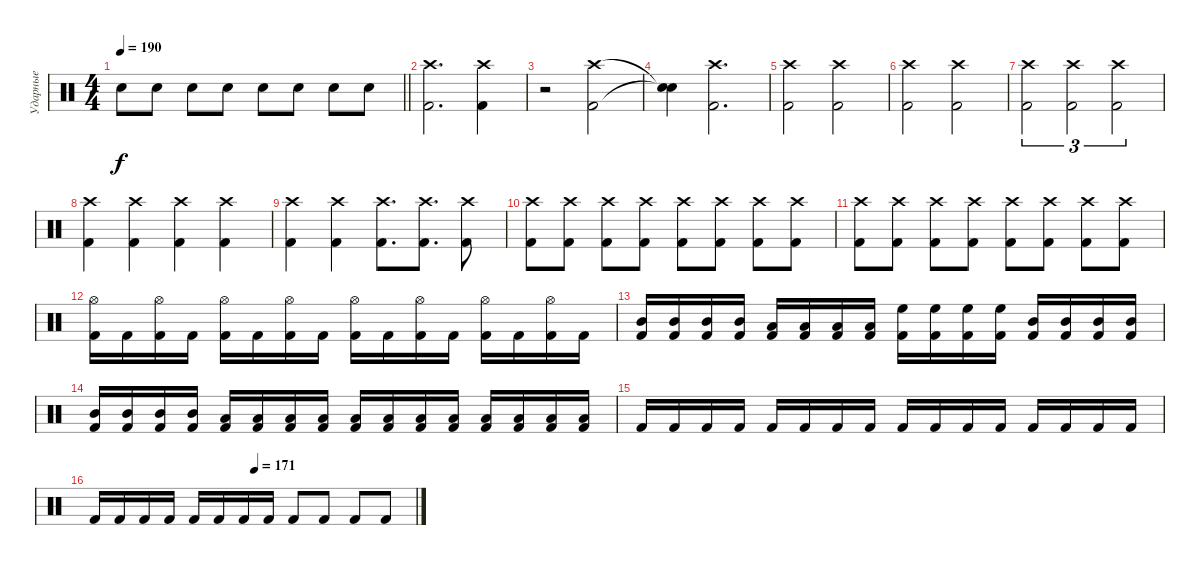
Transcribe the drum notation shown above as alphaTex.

\track ("Ударные" "Ударные") {instrument percussion}
\staff
\articulation defaults
\ts (4 4)
\tempo 190
\clef neutral
\barLineRight lightlight
\ks c "Snare (hit) 2".8{dy f} "Snare (hit) 2".8 "Snare (hit) 2".8 "Snare (hit) 2".8 "Snare (hit) 2".8 "Snare (hit) 2".8 "Snare (hit) 2".8 "Snare (hit) 2".8
|
("Kick (hit) 2" "Crash high (hit)").2{d} ("Kick (hit) 2" "Crash high (hit)").4 |
r.2 ("Kick (hit) 2" "Crash high (hit)").2 |
("Snare (hit)"{t} "Snare (hit)"{t}).4 ("Kick (hit) 2" "Crash high (hit)").2{d} |
("Kick (hit) 2" "Crash high (hit)").2 ("Kick (hit) 2" "Crash high (hit)").2 |
("Kick (hit) 2" "Crash high (hit)").2 ("Kick (hit) 2" "Crash high (hit)").2 |
("Kick (hit) 2" "Crash high (hit)").2{tu (3 2)} ("Kick (hit) 2" "Crash high (hit)").2{tu (3 2)} ("Kick (hit) 2" "Crash high (hit)").2{tu (3 2)} |
("Kick (hit) 2" "Crash high (hit)").4 ("Kick (hit) 2" "Crash high (hit)").4 ("Kick (hit) 2" "Crash high (hit)").4 ("Kick (hit) 2" "Crash high (hit)").4 |
("Kick (hit) 2" "Crash high (hit)").4 ("Kick (hit) 2" "Crash high (hit)").4 ("Kick (hit) 2" "Crash high (hit)").8{d} ("Kick (hit) 2" "Crash high (hit)").8{d} ("Kick (hit) 2" "Crash high (hit)").8 |
("Kick (hit) 2" "Crash high (hit)").8 ("Kick (hit) 2" "Crash high (hit)").8 ("Kick (hit) 2" "Crash high (hit)").8 ("Kick (hit) 2" "Crash high (hit)").8 ("Kick (hit) 2" "Crash high (hit)").8 ("Kick (hit) 2" "Crash high (hit)").8 ("Kick (hit) 2" "Crash high (hit)").8 ("Kick (hit) 2" "Crash high (hit)").8 |
("Kick (hit) 2" "Crash high (hit)").8 ("Kick (hit) 2" "Crash high (hit)").8 ("Kick (hit) 2" "Crash high (hit)").8 ("Kick (hit) 2" "Crash high (hit)").8 ("Kick (hit) 2" "Crash high (hit)").8 ("Kick (hit) 2" "Crash high (hit)").8 ("Kick (hit) 2" "Crash high (hit)").8 ("Kick (hit) 2" "Crash high (hit)").8 |
("Kick (hit) 2" "Hi-Hat (open)").16 "Kick (hit) 2".16 ("Kick (hit) 2" "Hi-Hat (open)").16 "Kick (hit) 2".16 ("Kick (hit) 2" "Hi-Hat (open)").16 "Kick (hit) 2".16 ("Kick (hit) 2" "Hi-Hat (open)").16 "Kick (hit) 2".16 ("Kick (hit) 2" "Hi-Hat (open)").16 "Kick (hit) 2".16 ("Kick (hit) 2" "Hi-Hat (open)").16 "Kick (hit) 2".16 ("Kick (hit) 2" "Hi-Hat (open)").16 "Kick (hit) 2".16 ("Kick (hit) 2" "Hi-Hat (open)").16 "Kick (hit) 2".16 |
("Kick (hit) 2" "Mid Tom (hit)").16 ("Kick (hit) 2" "Mid Tom (hit)").16 ("Kick (hit) 2" "Mid Tom (hit)").16 ("Kick (hit) 2" "Mid Tom (hit)").16 ("Kick (hit) 2" "Low Tom (hit)").16 ("Kick (hit) 2" "Low Tom (hit)").16 ("Kick (hit) 2" "Low Tom (hit)").16 ("Kick (hit) 2" "Low Tom (hit)").16 ("Kick (hit) 2" "High Floor Tom (hit)").16 ("Kick (hit) 2" "High Floor Tom (hit)").16 ("Kick (hit) 2" "High Floor Tom (hit)").16 ("Kick (hit) 2" "High Floor Tom (hit)").16 ("Kick (hit) 2" "Mid Tom (hit)").16 ("Kick (hit) 2" "Mid Tom (hit)").16 ("Kick (hit) 2" "Mid Tom (hit)").16 ("Kick (hit) 2" "Mid Tom (hit)").16 |
("Kick (hit) 2" "Mid Tom (hit)").16 ("Kick (hit) 2" "Mid Tom (hit)").16 ("Kick (hit) 2" "Mid Tom (hit)").16 ("Kick (hit) 2" "Mid Tom (hit)").16 ("Kick (hit) 2" "Low Tom (hit)").16 ("Kick (hit) 2" "Low Tom (hit)").16 ("Kick (hit) 2" "Low Tom (hit)").16 ("Kick (hit) 2" "Low Tom (hit)").16 ("Kick (hit) 2" "Low Floor Tom (hit)").16 ("Kick (hit) 2" "Low Floor Tom (hit)").16 ("Kick (hit) 2" "Low Floor Tom (hit)").16 ("Kick (hit) 2" "Low Floor Tom (hit)").16 ("Kick (hit) 2" "Low Floor Tom (hit)").16 ("Kick (hit) 2" "Low Floor Tom (hit)").16 ("Kick (hit) 2" "Low Floor Tom (hit)").16 ("Kick (hit) 2" "Low Floor Tom (hit)").16 |
"Kick (hit) 2".16 "Kick (hit) 2".16 "Kick (hit) 2".16 "Kick (hit) 2".16 "Kick (hit) 2".16 "Kick (hit) 2".16 "Kick (hit) 2".16 "Kick (hit) 2".16 "Kick (hit) 2".16 "Kick (hit) 2".16 "Kick (hit) 2".16 "Kick (hit) 2".16 "Kick (hit) 2".16 "Kick (hit) 2".16 "Kick (hit) 2".16 "Kick (hit) 2".16 |
\tempo (171 0.5)
"Kick (hit) 2".16 "Kick (hit) 2".16 "Kick (hit) 2".16 "Kick (hit) 2".16 "Kick (hit) 2".16 "Kick (hit) 2".16 "Kick (hit) 2".16 "Kick (hit) 2".16 "Kick (hit) 2".8 "Kick (hit) 2".8 "Kick (hit) 2".8 "Kick (hit) 2".8
